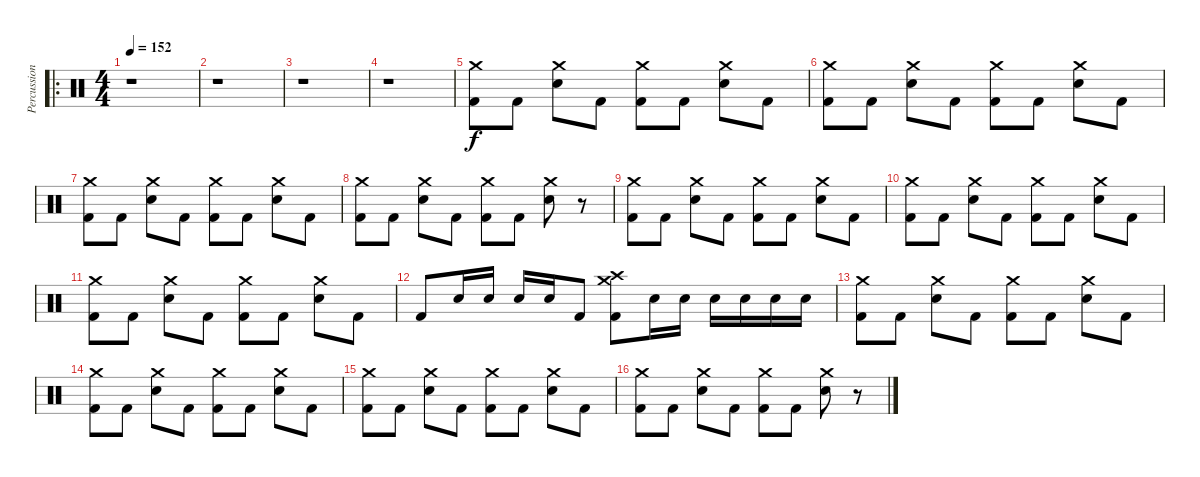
\track ("Percussions" "Percussion") {instrument percussion}
\staff {score}
\articulation defaults
\ro
\ts (4 4)
\tempo 152
\clef neutral
\ks c
r.1{dy f} |
r.1 |
r.1 |
r.1 |
("Crash medium (hit)" "Kick (hit) 2").8 "Kick (hit) 2".8 ("Crash medium (hit)" "Electric Snare (hit)").8 "Kick (hit) 2".8 ("Crash medium (hit)" "Kick (hit) 2").8 "Kick (hit) 2".8 ("Crash medium (hit)" "Electric Snare (hit)").8 "Kick (hit) 2".8 |
("Crash medium (hit)" "Kick (hit) 2").8 "Kick (hit) 2".8 ("Crash medium (hit)" "Electric Snare (hit)").8 "Kick (hit) 2".8 ("Crash medium (hit)" "Kick (hit) 2").8 "Kick (hit) 2".8 ("Crash medium (hit)" "Electric Snare (hit)").8 "Kick (hit) 2".8 |
("Crash medium (hit)" "Kick (hit) 2").8 "Kick (hit) 2".8 ("Crash medium (hit)" "Electric Snare (hit)").8 "Kick (hit) 2".8 ("Crash medium (hit)" "Kick (hit) 2").8 "Kick (hit) 2".8 ("Crash medium (hit)" "Electric Snare (hit)").8 "Kick (hit) 2".8 |
("Crash medium (hit)" "Kick (hit) 2").8 "Kick (hit) 2".8 ("Crash medium (hit)" "Electric Snare (hit)").8 "Kick (hit) 2".8 ("Crash medium (hit)" "Kick (hit) 2").8 "Kick (hit) 2".8 ("Crash medium (hit)" "Electric Snare (hit)").8 r.8 |
("Crash medium (hit)" "Kick (hit) 2").8 "Kick (hit) 2".8 ("Crash medium (hit)" "Electric Snare (hit)").8 "Kick (hit) 2".8 ("Crash medium (hit)" "Kick (hit) 2").8 "Kick (hit) 2".8 ("Crash medium (hit)" "Electric Snare (hit)").8 "Kick (hit) 2".8 |
("Crash medium (hit)" "Kick (hit) 2").8 "Kick (hit) 2".8 ("Crash medium (hit)" "Electric Snare (hit)").8 "Kick (hit) 2".8 ("Crash medium (hit)" "Kick (hit) 2").8 "Kick (hit) 2".8 ("Crash medium (hit)" "Electric Snare (hit)").8 "Kick (hit) 2".8 |
("Crash medium (hit)" "Kick (hit) 2").8 "Kick (hit) 2".8 ("Crash medium (hit)" "Electric Snare (hit)").8 "Kick (hit) 2".8 ("Crash medium (hit)" "Kick (hit) 2").8 "Kick (hit) 2".8 ("Crash medium (hit)" "Electric Snare (hit)").8 "Kick (hit) 2".8 |
"Kick (hit) 2".8 "Electric Snare (hit)".16 "Electric Snare (hit)".16 "Electric Snare (hit)".16 "Electric Snare (hit)".16 "Kick (hit) 2".8 ("Crash medium (hit)" "Crash high (hit)" "Kick (hit) 2").8 "Electric Snare (hit)".16 "Electric Snare (hit)".16 "Electric Snare (hit)".16 "Electric Snare (hit)".16 "Electric Snare (hit)".16 "Electric Snare (hit)".16 |
("Crash medium (hit)" "Kick (hit) 2").8 "Kick (hit) 2".8 ("Crash medium (hit)" "Electric Snare (hit)").8 "Kick (hit) 2".8 ("Crash medium (hit)" "Kick (hit) 2").8 "Kick (hit) 2".8 ("Crash medium (hit)" "Electric Snare (hit)").8 "Kick (hit) 2".8 |
("Crash medium (hit)" "Kick (hit) 2").8 "Kick (hit) 2".8 ("Crash medium (hit)" "Electric Snare (hit)").8 "Kick (hit) 2".8 ("Crash medium (hit)" "Kick (hit) 2").8 "Kick (hit) 2".8 ("Crash medium (hit)" "Electric Snare (hit)").8 "Kick (hit) 2".8 |
("Crash medium (hit)" "Kick (hit) 2").8 "Kick (hit) 2".8 ("Crash medium (hit)" "Electric Snare (hit)").8 "Kick (hit) 2".8 ("Crash medium (hit)" "Kick (hit) 2").8 "Kick (hit) 2".8 ("Crash medium (hit)" "Electric Snare (hit)").8 "Kick (hit) 2".8 |
("Crash medium (hit)" "Kick (hit) 2").8 "Kick (hit) 2".8 ("Crash medium (hit)" "Electric Snare (hit)").8 "Kick (hit) 2".8 ("Crash medium (hit)" "Kick (hit) 2").8 "Kick (hit) 2".8 ("Crash medium (hit)" "Electric Snare (hit)").8 r.8
